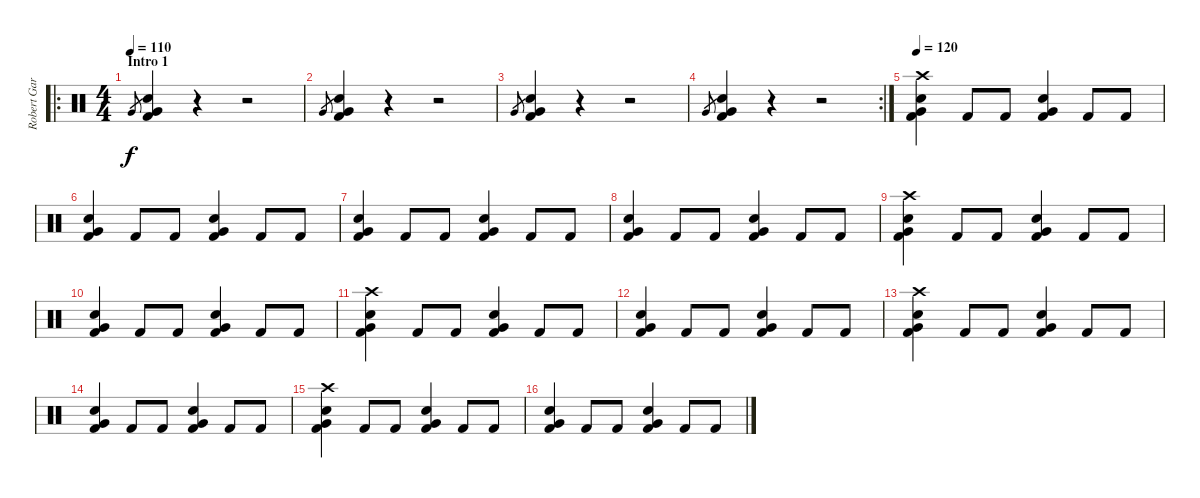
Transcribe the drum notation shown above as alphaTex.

\track ("Robert Garven" "Robert Gar") {instrument percussion}
\staff {score}
\articulation defaults
\ro
\ts (4 4)
\section ("" "Intro 1")
\tempo 110
\clef neutral
\ks c "Very Low Tom (hit)".8{gr dy f}
("Very Low Tom (hit)" "Electric Snare (hit)" "Kick (hit) 2").4 r.4 r.2 |
"Very Low Tom (hit)".8{gr} ("Very Low Tom (hit)" "Electric Snare (hit)" "Kick (hit) 2").4 r.4 r.2 |
"Very Low Tom (hit)".8{gr} ("Very Low Tom (hit)" "Electric Snare (hit)" "Kick (hit) 2").4 r.4 r.2 |
\rc 2 "Very Low Tom (hit)".8{gr}
("Very Low Tom (hit)" "Electric Snare (hit)" "Kick (hit) 2").4 r.4 r.2 |
\tempo 120
("Crash high (hit)" "Very Low Tom (hit)" "Electric Snare (hit)" "Kick (hit) 2").4 "Kick (hit) 2".8 "Kick (hit) 2".8 ("Very Low Tom (hit)" "Electric Snare (hit)" "Kick (hit) 2").4 "Kick (hit) 2".8 "Kick (hit) 2".8 |
("Very Low Tom (hit)" "Electric Snare (hit)" "Kick (hit) 2").4 "Kick (hit) 2".8 "Kick (hit) 2".8 ("Very Low Tom (hit)" "Electric Snare (hit)" "Kick (hit) 2").4 "Kick (hit) 2".8 "Kick (hit) 2".8 |
("Very Low Tom (hit)" "Electric Snare (hit)" "Kick (hit) 2").4 "Kick (hit) 2".8 "Kick (hit) 2".8 ("Very Low Tom (hit)" "Electric Snare (hit)" "Kick (hit) 2").4 "Kick (hit) 2".8 "Kick (hit) 2".8 |
("Very Low Tom (hit)" "Electric Snare (hit)" "Kick (hit) 2").4 "Kick (hit) 2".8 "Kick (hit) 2".8 ("Very Low Tom (hit)" "Electric Snare (hit)" "Kick (hit) 2").4 "Kick (hit) 2".8 "Kick (hit) 2".8 |
("Crash high (hit)" "Very Low Tom (hit)" "Electric Snare (hit)" "Kick (hit) 2").4 "Kick (hit) 2".8 "Kick (hit) 2".8 ("Very Low Tom (hit)" "Electric Snare (hit)" "Kick (hit) 2").4 "Kick (hit) 2".8 "Kick (hit) 2".8 |
("Very Low Tom (hit)" "Electric Snare (hit)" "Kick (hit) 2").4 "Kick (hit) 2".8 "Kick (hit) 2".8 ("Very Low Tom (hit)" "Electric Snare (hit)" "Kick (hit) 2").4 "Kick (hit) 2".8 "Kick (hit) 2".8 |
("Crash high (hit)" "Very Low Tom (hit)" "Electric Snare (hit)" "Kick (hit) 2").4 "Kick (hit) 2".8 "Kick (hit) 2".8 ("Very Low Tom (hit)" "Electric Snare (hit)" "Kick (hit) 2").4 "Kick (hit) 2".8 "Kick (hit) 2".8 |
("Very Low Tom (hit)" "Electric Snare (hit)" "Kick (hit) 2").4 "Kick (hit) 2".8 "Kick (hit) 2".8 ("Very Low Tom (hit)" "Electric Snare (hit)" "Kick (hit) 2").4 "Kick (hit) 2".8 "Kick (hit) 2".8 |
("Crash high (hit)" "Very Low Tom (hit)" "Electric Snare (hit)" "Kick (hit) 2").4 "Kick (hit) 2".8 "Kick (hit) 2".8 ("Very Low Tom (hit)" "Electric Snare (hit)" "Kick (hit) 2").4 "Kick (hit) 2".8 "Kick (hit) 2".8 |
("Very Low Tom (hit)" "Electric Snare (hit)" "Kick (hit) 2").4 "Kick (hit) 2".8 "Kick (hit) 2".8 ("Very Low Tom (hit)" "Electric Snare (hit)" "Kick (hit) 2").4 "Kick (hit) 2".8 "Kick (hit) 2".8 |
("Crash high (hit)" "Very Low Tom (hit)" "Electric Snare (hit)" "Kick (hit) 2").4 "Kick (hit) 2".8 "Kick (hit) 2".8 ("Very Low Tom (hit)" "Electric Snare (hit)" "Kick (hit) 2").4 "Kick (hit) 2".8 "Kick (hit) 2".8 |
("Very Low Tom (hit)" "Electric Snare (hit)" "Kick (hit) 2").4 "Kick (hit) 2".8 "Kick (hit) 2".8 ("Very Low Tom (hit)" "Electric Snare (hit)" "Kick (hit) 2").4 "Kick (hit) 2".8 "Kick (hit) 2".8
